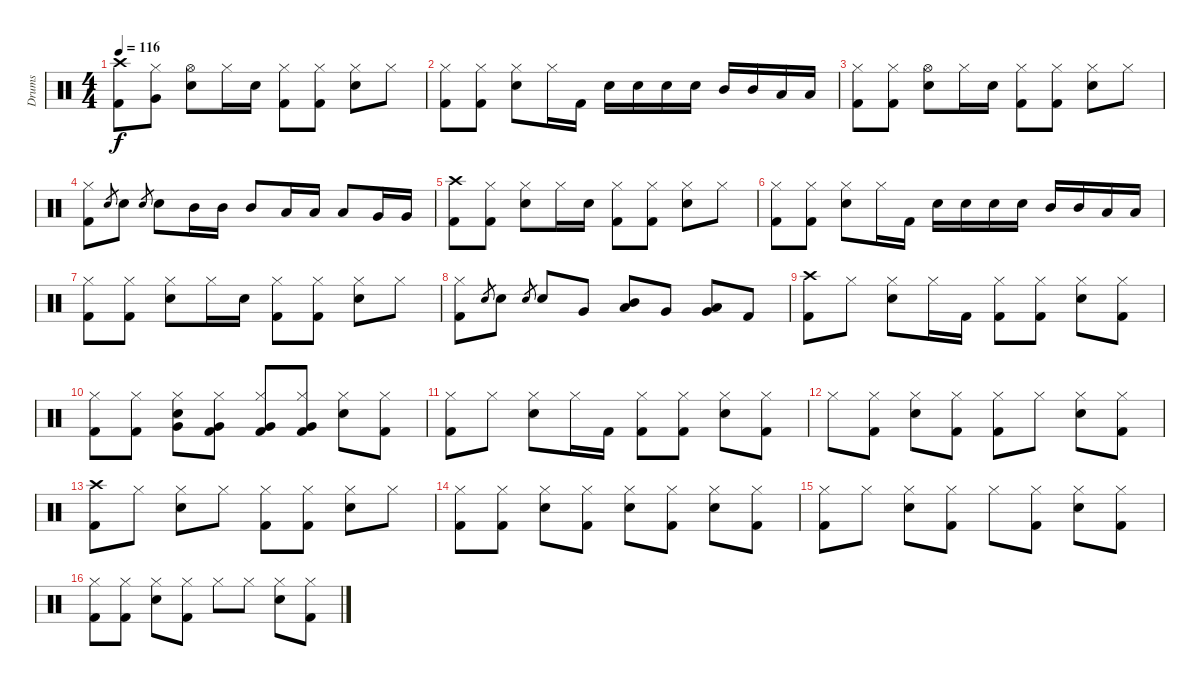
\track ("Drums" "Drums") {instrument percussion}
\staff {score}
\articulation defaults
\ts (4 4)
\tempo 116
\clef neutral
\ks c
("Crash high (hit)" "Kick (hit) 2").8{dy f} ("Hi-Hat (closed)" "Very Low Tom (hit)").8 ("Hi-Hat (open)" "Snare (hit) 2").8 "Hi-Hat (closed)".16 "Snare (hit) 2".16 ("Hi-Hat (closed)" "Kick (hit) 2").8 ("Hi-Hat (closed)" "Kick (hit) 2").8 ("Hi-Hat (closed)" "Snare (hit) 2").8 "Hi-Hat (closed)".8 |
("Hi-Hat (closed)" "Kick (hit) 2").8 ("Hi-Hat (closed)" "Kick (hit) 2").8 ("Hi-Hat (closed)" "Snare (hit) 2").8 "Hi-Hat (closed)".16 "Kick (hit) 2".16 "Snare (hit) 2".16 "Snare (hit) 2".16 "Snare (hit) 2".16 "Snare (hit) 2".16 "Mid Tom (hit)".16 "Mid Tom (hit)".16 "Low Tom (hit)".16 "Low Tom (hit)".16 |
("Hi-Hat (closed)" "Kick (hit) 2").8 ("Hi-Hat (closed)" "Kick (hit) 2").8 ("Hi-Hat (open)" "Snare (hit) 2").8 "Hi-Hat (closed)".16 "Snare (hit) 2".16 ("Hi-Hat (closed)" "Kick (hit) 2").8 ("Hi-Hat (closed)" "Kick (hit) 2").8 ("Hi-Hat (closed)" "Snare (hit) 2").8 "Hi-Hat (closed)".8 |
("Hi-Hat (closed)" "Kick (hit) 2").8 "Snare (hit) 2".8{gr} "Snare (hit) 2".8 "Snare (hit) 2".8{gr} "Snare (hit) 2".8 "Mid Tom (hit)".16 "Mid Tom (hit)".16 "Mid Tom (hit)".8 "Low Tom (hit)".16 "Low Tom (hit)".16 "Low Tom (hit)".8 "Very Low Tom (hit)".16 "Very Low Tom (hit)".16 |
("Crash high (hit)" "Kick (hit) 2").8 ("Hi-Hat (closed)" "Kick (hit) 2").8 ("Hi-Hat (closed)" "Snare (hit) 2").8 "Hi-Hat (closed)".16 "Snare (hit) 2".16 ("Hi-Hat (closed)" "Kick (hit) 2").8 ("Hi-Hat (closed)" "Kick (hit) 2").8 ("Hi-Hat (closed)" "Snare (hit) 2").8 "Hi-Hat (closed)".8 |
("Hi-Hat (closed)" "Kick (hit) 2").8 ("Hi-Hat (closed)" "Kick (hit) 2").8 ("Hi-Hat (closed)" "Snare (hit) 2").8 "Hi-Hat (closed)".16 "Kick (hit) 2".16 "Snare (hit) 2".16 "Snare (hit) 2".16 "Snare (hit) 2".16 "Snare (hit) 2".16 "Mid Tom (hit)".16 "Mid Tom (hit)".16 "Low Tom (hit)".16 "Low Tom (hit)".16 |
("Hi-Hat (closed)" "Kick (hit) 2").8 ("Hi-Hat (closed)" "Kick (hit) 2").8 ("Hi-Hat (closed)" "Snare (hit) 2").8 "Hi-Hat (closed)".16 "Snare (hit) 2".16 ("Hi-Hat (closed)" "Kick (hit) 2").8 ("Hi-Hat (closed)" "Kick (hit) 2").8 ("Hi-Hat (closed)" "Snare (hit) 2").8 "Hi-Hat (closed)".8 |
("Hi-Hat (closed)" "Kick (hit) 2").8 "Snare (hit) 2".8{gr} "Snare (hit) 2".8 "Snare (hit) 2".8{gr} "Snare (hit) 2".8 "Very Low Tom (hit)".8 ("Mid Tom (hit)" "Low Tom (hit)").8 "Very Low Tom (hit)".8 ("Low Tom (hit)" "Very Low Tom (hit)").8 "Kick (hit) 2".8 |
("Crash high (hit)" "Kick (hit) 2").8 "Hi-Hat (closed)".8 ("Hi-Hat (closed)" "Snare (hit) 2").8 "Hi-Hat (closed)".16 "Kick (hit) 2".16 ("Hi-Hat (closed)" "Kick (hit) 2").8 ("Hi-Hat (closed)" "Kick (hit) 2").8 ("Hi-Hat (closed)" "Snare (hit) 2").8 ("Hi-Hat (closed)" "Kick (hit) 2").8 |
("Hi-Hat (closed)" "Kick (hit) 2").8 ("Hi-Hat (closed)" "Kick (hit) 2").8 ("Hi-Hat (closed)" "Snare (hit) 2" "Very Low Tom (hit)").8 ("Hi-Hat (closed)" "Very Low Tom (hit)" "Kick (hit) 2").8 ("Hi-Hat (closed)" "Very Low Tom (hit)" "Kick (hit) 2").8 ("Hi-Hat (closed)" "Very Low Tom (hit)" "Kick (hit) 2").8 ("Hi-Hat (closed)" "Snare (hit) 2").8 ("Hi-Hat (closed)" "Kick (hit) 2").8 |
("Hi-Hat (closed)" "Kick (hit) 2").8 "Hi-Hat (closed)".8 ("Hi-Hat (closed)" "Snare (hit) 2").8 "Hi-Hat (closed)".16 "Kick (hit) 2".16 ("Hi-Hat (closed)" "Kick (hit) 2").8 ("Hi-Hat (closed)" "Kick (hit) 2").8 ("Hi-Hat (closed)" "Snare (hit) 2").8 ("Hi-Hat (closed)" "Kick (hit) 2").8 |
"Hi-Hat (closed)".8 ("Hi-Hat (closed)" "Kick (hit) 2").8 ("Hi-Hat (closed)" "Snare (hit) 2").8 ("Hi-Hat (closed)" "Kick (hit) 2").8 ("Hi-Hat (closed)" "Kick (hit) 2").8 "Hi-Hat (closed)".8 ("Hi-Hat (closed)" "Snare (hit) 2").8 ("Hi-Hat (closed)" "Kick (hit) 2").8 |
("Crash high (hit)" "Kick (hit) 2").8 "Hi-Hat (closed)".8 ("Hi-Hat (closed)" "Snare (hit) 2").8 "Hi-Hat (closed)".8 ("Hi-Hat (closed)" "Kick (hit) 2").8 ("Hi-Hat (closed)" "Kick (hit) 2").8 ("Hi-Hat (closed)" "Snare (hit) 2").8 "Hi-Hat (closed)".8 |
("Hi-Hat (closed)" "Kick (hit) 2").8 ("Hi-Hat (closed)" "Kick (hit) 2").8 ("Hi-Hat (closed)" "Snare (hit) 2").8 ("Hi-Hat (closed)" "Kick (hit) 2").8 ("Hi-Hat (closed)" "Snare (hit) 2").8 ("Hi-Hat (closed)" "Kick (hit) 2").8 ("Hi-Hat (closed)" "Snare (hit) 2").8 ("Hi-Hat (closed)" "Kick (hit) 2").8 |
("Hi-Hat (closed)" "Kick (hit) 2").8 "Hi-Hat (closed)".8 ("Hi-Hat (closed)" "Snare (hit) 2").8 ("Hi-Hat (closed)" "Kick (hit) 2").8 "Hi-Hat (closed)".8 ("Hi-Hat (closed)" "Kick (hit) 2").8 ("Hi-Hat (closed)" "Snare (hit) 2").8 ("Hi-Hat (closed)" "Kick (hit) 2").8 |
("Hi-Hat (closed)" "Kick (hit) 2").8 ("Hi-Hat (closed)" "Kick (hit) 2").8 ("Hi-Hat (closed)" "Snare (hit) 2").8 ("Hi-Hat (closed)" "Kick (hit) 2").8 "Hi-Hat (closed)".8 "Hi-Hat (closed)".8 ("Hi-Hat (closed)" "Snare (hit) 2").8 ("Hi-Hat (closed)" "Kick (hit) 2").8
